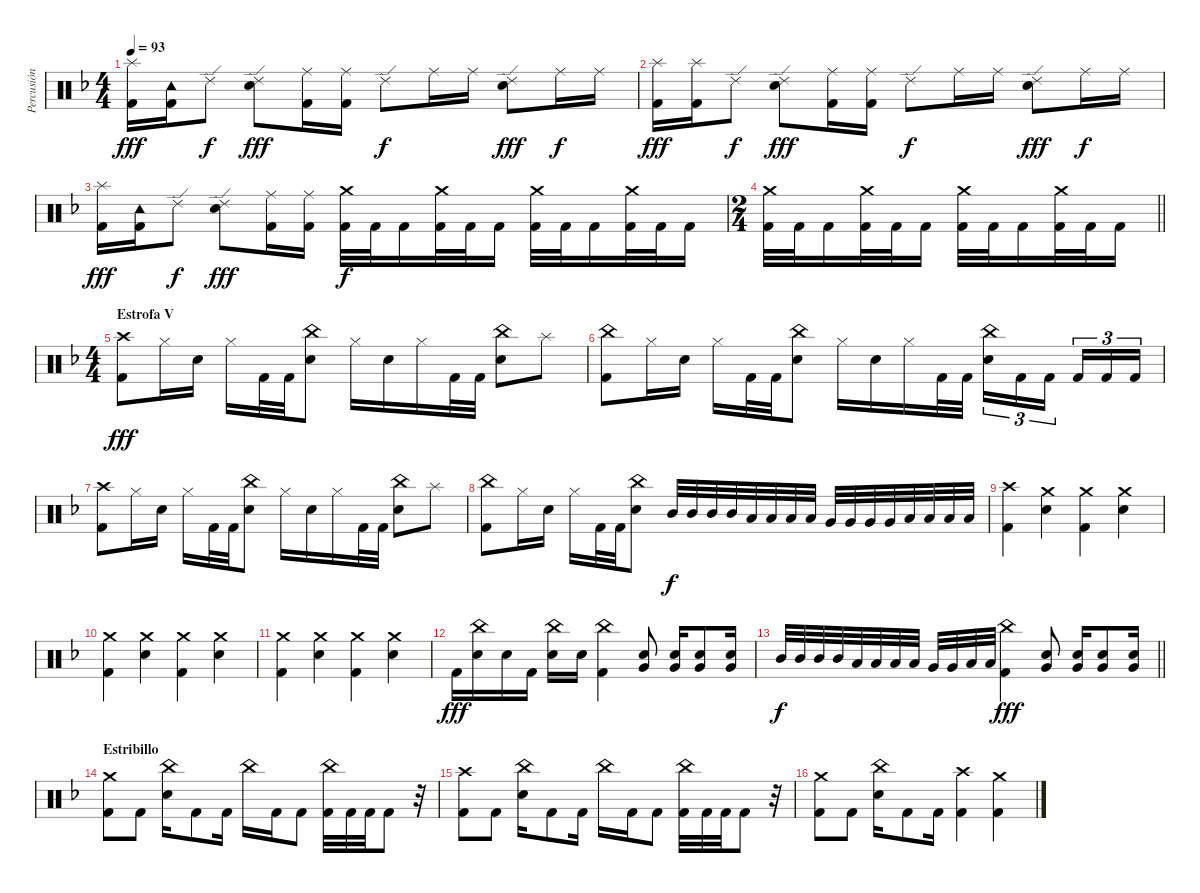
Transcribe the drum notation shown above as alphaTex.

\track ("Percusión" "Percusión") {instrument percussion}
\staff {score}
\articulation defaults
\ts (4 4)
\tempo 93
\clef neutral
\ks dminor
("Splash (hit)" "Kick (hit) 2").16{dy fff} ("Tambourine (hit)" "Kick (hit) 2").16 "Ride (edge) 2".8{dy f} ("Ride (edge) 2" "Snare (hit) 2").8{dy fff} ("Ride (middle)" "Kick (hit) 2").16 ("Ride (middle)" "Kick (hit) 2").16 "Ride (edge) 2".8{dy f} "Ride (middle)".16 "Ride (middle)".16 ("Ride (edge) 2" "Snare (hit) 2").8{dy fff} "Ride (middle)".16{dy f} "Ride (middle)".16 |
("Splash (hit)" "Kick (hit) 2").16{dy fff} ("Splash (hit)" "Kick (hit) 2").16 "Ride (edge) 2".8{dy f} ("Ride (edge) 2" "Snare (hit) 2").8{dy fff} ("Ride (middle)" "Kick (hit) 2").16 ("Ride (middle)" "Kick (hit) 2").16 "Ride (edge) 2".8{dy f} "Ride (middle)".16 "Ride (middle)".16 ("Ride (edge) 2" "Snare (hit) 2").8{dy fff} "Ride (middle)".16{dy f} "Ride (middle)".16 |
("Splash (hit)" "Kick (hit) 2").16{dy fff} ("Tambourine (hit)" "Kick (hit) 2").16 "Ride (edge) 2".8{dy f} ("Ride (edge) 2" "Snare (hit) 2").8{dy fff} ("Ride (middle)" "Kick (hit) 2").16 ("Ride (middle)" "Kick (hit) 2").16 ("Crash medium (hit)" "Kick (hit) 2").32{dy f} "Kick (hit) 2".32 "Kick (hit) 2".16 ("Crash medium (hit)" "Kick (hit) 2").32 "Kick (hit) 2".32 "Kick (hit) 2".16 ("Crash medium (hit)" "Kick (hit) 2").32 "Kick (hit) 2".32 "Kick (hit) 2".16 ("Crash medium (hit)" "Kick (hit) 2").32 "Kick (hit) 2".32 "Kick (hit) 2".16 |
\ts (2 4)
\barLineRight lightlight
("Crash medium (hit)" "Kick (hit) 2").32 "Kick (hit) 2".32 "Kick (hit) 2".16 ("Crash medium (hit)" "Kick (hit) 2").32 "Kick (hit) 2".32 "Kick (hit) 2".16 ("Crash medium (hit)" "Kick (hit) 2").32 "Kick (hit) 2".32 "Kick (hit) 2".16 ("Crash medium (hit)" "Kick (hit) 2").32 "Kick (hit) 2".32 "Kick (hit) 2".16 |
\ts (4 4)
\section ("" "Estrofa V")
("Crash high (hit)" "Kick (hit) 2").8{dy fff} "Hi-Hat (closed)".16 "Snare (hit) 2".16 "Hi-Hat (closed)".16 "Kick (hit) 2".32 "Kick (hit) 2".32 ("China (hit)" "Snare (hit) 2").8 "Hi-Hat (closed)".16 "Snare (hit) 2".16 "Hi-Hat (closed)".16 "Kick (hit) 2".32 "Kick (hit) 2".32 ("China (hit)" "Snare (hit) 2").8 "Splash (hit)".8 |
("China (hit)" "Kick (hit) 2").8 "Hi-Hat (closed)".16 "Snare (hit) 2".16 "Hi-Hat (closed)".16 "Kick (hit) 2".32 "Kick (hit) 2".32 ("China (hit)" "Snare (hit) 2").8 "Hi-Hat (closed)".16 "Snare (hit) 2".16 "Hi-Hat (closed)".16 "Kick (hit) 2".32 "Kick (hit) 2".32 ("China (hit)" "Snare (hit) 2").16{tu (3 2)} "Kick (hit) 2".16{tu (3 2)} "Kick (hit) 2".16{tu (3 2) beam splitsecondary} "Kick (hit) 2".16{tu (3 2)} "Kick (hit) 2".16{tu (3 2)} "Kick (hit) 2".16{tu (3 2)} |
("Crash high (hit)" "Kick (hit) 2").8 "Hi-Hat (closed)".16 "Snare (hit) 2".16 "Hi-Hat (closed)".16 "Kick (hit) 2".32 "Kick (hit) 2".32 ("China (hit)" "Snare (hit) 2").8 "Hi-Hat (closed)".16 "Snare (hit) 2".16 "Hi-Hat (closed)".16 "Kick (hit) 2".32 "Kick (hit) 2".32 ("China (hit)" "Snare (hit) 2").8 "Splash (hit)".8 |
("China (hit)" "Kick (hit) 2").8 "Hi-Hat (closed)".16 "Snare (hit) 2".16 "Hi-Hat (closed)".16 "Kick (hit) 2".32 "Kick (hit) 2".32 ("China (hit)" "Snare (hit) 2").8 "Mid Tom (hit)".32{dy f} "Mid Tom (hit)".32 "Mid Tom (hit)".32 "Mid Tom (hit)".32 "Low Tom (hit)".32 "Low Tom (hit)".32 "Low Tom (hit)".32 "Low Tom (hit)".32 "Very Low Tom (hit)".32 "Very Low Tom (hit)".32 "Very Low Tom (hit)".32 "Very Low Tom (hit)".32 "Low Floor Tom (hit)".32 "Low Floor Tom (hit)".32 "Low Floor Tom (hit)".32 "Low Floor Tom (hit)".32 |
("Crash high (hit)" "Kick (hit) 2").4 ("Crash medium (hit)" "Snare (hit) 2").4 ("Crash medium (hit)" "Kick (hit) 2").4 ("Crash medium (hit)" "Snare (hit) 2").4 |
("Crash medium (hit)" "Kick (hit) 2").4 ("Crash medium (hit)" "Snare (hit) 2").4 ("Crash medium (hit)" "Kick (hit) 2").4 ("Crash medium (hit)" "Snare (hit) 2").4 |
("Crash medium (hit)" "Kick (hit) 2").4 ("Crash medium (hit)" "Snare (hit) 2").4 ("Crash medium (hit)" "Kick (hit) 2").4 ("Crash medium (hit)" "Snare (hit) 2").4 |
"Kick (hit) 2".16{dy fff} ("China (hit)" "Snare (hit) 2").16 "Snare (hit) 2".16 "Kick (hit) 2".16 ("China (hit)" "Snare (hit) 2").16 "Snare (hit) 2".16 ("China (hit)" "Kick (hit) 2").4 ("Very Low Tom (hit)" "Snare (hit) 2").8 ("Very Low Tom (hit)" "Snare (hit) 2").16 ("Very Low Tom (hit)" "Snare (hit) 2").8 ("Very Low Tom (hit)" "Snare (hit) 2").16 |
\barLineRight lightlight "Mid Tom (hit)".32{dy f} "Mid Tom (hit)".32 "Mid Tom (hit)".32 "Mid Tom (hit)".32 "Low Tom (hit)".32 "Low Tom (hit)".32 "Low Tom (hit)".32 "Low Tom (hit)".32 "Very Low Tom (hit)".32 "Very Low Tom (hit)".32 "Low Floor Tom (hit)".32 "Low Floor Tom (hit)".32
("China (hit)" "Kick (hit) 2").4{dy fff} ("Very Low Tom (hit)" "Snare (hit) 2").8 ("Very Low Tom (hit)" "Snare (hit) 2").16 ("Very Low Tom (hit)" "Snare (hit) 2").8 ("Very Low Tom (hit)" "Snare (hit) 2").16 |
\section ("" "Estribillo")
("Crash medium (hit)" "Kick (hit) 2").8 "Kick (hit) 2".8 ("China (hit)" "Snare (hit) 2").16 "Kick (hit) 2".8 "Kick (hit) 2".16 "China (hit)".16 "Kick (hit) 2".16 "Kick (hit) 2".8 ("China (hit)" "Kick (hit) 2").32 "Kick (hit) 2".32 "Kick (hit) 2".32 "Kick (hit) 2".8 r.32 |
("Crash high (hit)" "Kick (hit) 2").8 "Kick (hit) 2".8 ("China (hit)" "Snare (hit) 2").16 "Kick (hit) 2".8 "Kick (hit) 2".16 "China (hit)".16 "Kick (hit) 2".16 "Kick (hit) 2".8 ("China (hit)" "Kick (hit) 2").32 "Kick (hit) 2".32 "Kick (hit) 2".32 "Kick (hit) 2".8 r.32 |
("Crash medium (hit)" "Kick (hit) 2").8 "Kick (hit) 2".8 ("China (hit)" "Snare (hit) 2").16 "Kick (hit) 2".8 "Kick (hit) 2".16 ("Crash high (hit)" "Kick (hit) 2").4 ("Crash medium (hit)" "Kick (hit) 2").4
